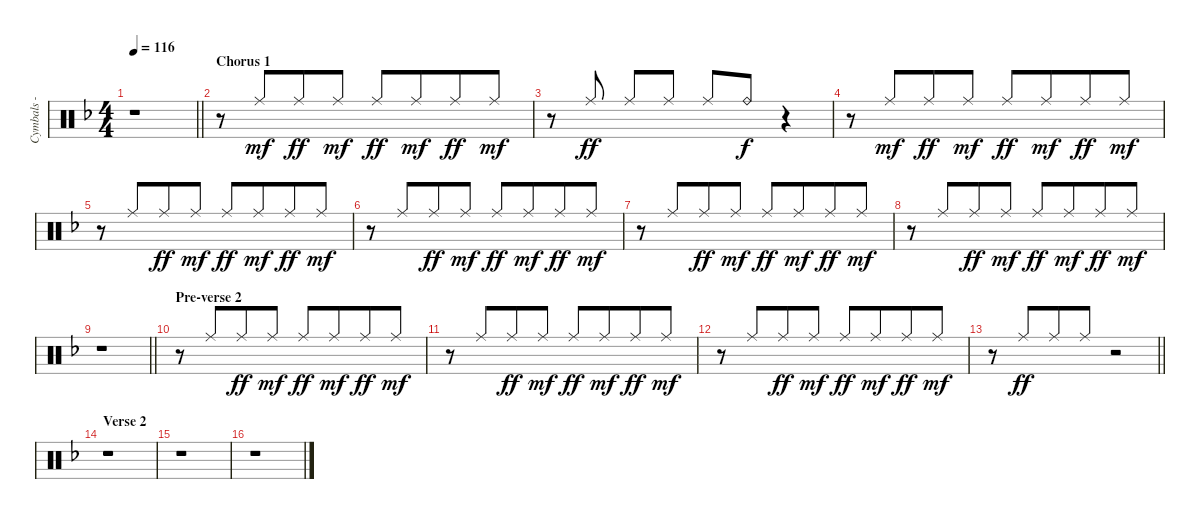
\track ("Cymbals - ride" "Cymbals - ") {instrument percussion}
\staff {score}
\articulation defaults
\ts (4 4)
\tempo 116
\clef neutral
\barLineRight lightlight
\ks f
r.1{dy ff} |
\section ("" "Chorus 1")
r.8 "Ride (middle)".8{dy mf beam Up beam merge} "Ride (middle)".8{dy ff beam Up} "Ride (middle)".8{dy mf beam Up} "Ride (middle)".8{dy ff beam Up} "Ride (middle)".8{dy mf beam Up beam merge} "Ride (middle)".8{dy ff beam Up} "Ride (middle)".8{dy mf beam Up} |
r.8 "Ride (middle)".8{dy ff beam Up beam split} "Ride (middle)".8{beam Up} "Ride (middle)".8{beam Up} "Ride (middle)".8{beam Up} "Ride (bell)".8{dy f beam Up} r.4 |
r.8 "Ride (middle)".8{dy mf beam Up beam merge} "Ride (middle)".8{dy ff beam Up} "Ride (middle)".8{dy mf beam Up} "Ride (middle)".8{dy ff beam Up} "Ride (middle)".8{dy mf beam Up beam merge} "Ride (middle)".8{dy ff beam Up} "Ride (middle)".8{dy mf beam Up} |
r.8 "Ride (middle)".8{beam Up beam merge} "Ride (middle)".8{dy ff beam Up} "Ride (middle)".8{dy mf beam Up} "Ride (middle)".8{dy ff beam Up} "Ride (middle)".8{dy mf beam Up beam merge} "Ride (middle)".8{dy ff beam Up} "Ride (middle)".8{dy mf beam Up} |
r.8 "Ride (middle)".8{beam Up beam merge} "Ride (middle)".8{dy ff beam Up} "Ride (middle)".8{dy mf beam Up} "Ride (middle)".8{dy ff beam Up} "Ride (middle)".8{dy mf beam Up beam merge} "Ride (middle)".8{dy ff beam Up} "Ride (middle)".8{dy mf beam Up} |
r.8 "Ride (middle)".8{beam Up beam merge} "Ride (middle)".8{dy ff beam Up} "Ride (middle)".8{dy mf beam Up} "Ride (middle)".8{dy ff beam Up} "Ride (middle)".8{dy mf beam Up beam merge} "Ride (middle)".8{dy ff beam Up} "Ride (middle)".8{dy mf beam Up} |
r.8 "Ride (middle)".8{beam Up beam merge} "Ride (middle)".8{dy ff beam Up} "Ride (middle)".8{dy mf beam Up} "Ride (middle)".8{dy ff beam Up} "Ride (middle)".8{dy mf beam Up beam merge} "Ride (middle)".8{dy ff beam Up} "Ride (middle)".8{dy mf beam Up} |
\barLineRight lightlight
r.1 |
\section ("" "Pre-verse 2")
r.8 "Ride (middle)".8{beam Up beam merge} "Ride (middle)".8{dy ff beam Up} "Ride (middle)".8{dy mf beam Up} "Ride (middle)".8{dy ff beam Up} "Ride (middle)".8{dy mf beam Up beam merge} "Ride (middle)".8{dy ff beam Up} "Ride (middle)".8{dy mf beam Up} |
r.8 "Ride (middle)".8{beam Up beam merge} "Ride (middle)".8{dy ff beam Up} "Ride (middle)".8{dy mf beam Up} "Ride (middle)".8{dy ff beam Up} "Ride (middle)".8{dy mf beam Up beam merge} "Ride (middle)".8{dy ff beam Up} "Ride (middle)".8{dy mf beam Up} |
r.8 "Ride (middle)".8{beam Up beam merge} "Ride (middle)".8{dy ff beam Up} "Ride (middle)".8{dy mf beam Up} "Ride (middle)".8{dy ff beam Up} "Ride (middle)".8{dy mf beam Up beam merge} "Ride (middle)".8{dy ff beam Up} "Ride (middle)".8{dy mf beam Up} |
\barLineRight lightlight
r.8 "Ride (middle)".8{dy ff beam Up beam merge} "Ride (middle)".8{beam Up} "Ride (middle)".8{beam Up} r.2 |
\section ("" "Verse 2")
r.1 |
r.1 |
r.1
